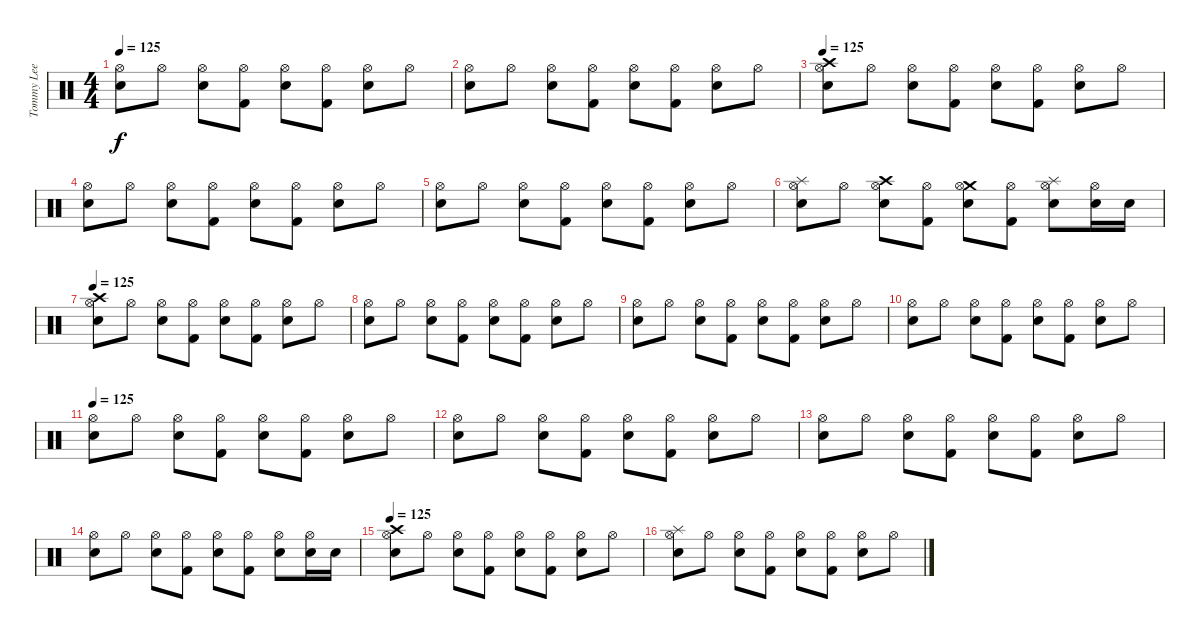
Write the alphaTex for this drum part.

\track ("Tommy Lee" "Tommy Lee") {instrument percussion}
\staff {score}
\articulation defaults
\ts (4 4)
\tempo 125
\clef neutral
\ks c
("Hi-Hat (open)" "Snare (hit) 2").8{dy f} "Hi-Hat (open)".8 ("Hi-Hat (open)" "Snare (hit) 2").8 ("Hi-Hat (open)" "Kick (hit) 2").8 ("Hi-Hat (open)" "Snare (hit) 2").8 ("Hi-Hat (open)" "Kick (hit) 2").8 ("Hi-Hat (open)" "Snare (hit) 2").8 "Hi-Hat (open)".8 |
("Hi-Hat (open)" "Snare (hit) 2").8 "Hi-Hat (open)".8 ("Hi-Hat (open)" "Snare (hit) 2").8 ("Hi-Hat (open)" "Kick (hit) 2").8 ("Hi-Hat (open)" "Snare (hit) 2").8 ("Hi-Hat (open)" "Kick (hit) 2").8 ("Hi-Hat (open)" "Snare (hit) 2").8 "Hi-Hat (open)".8 |
\tempo 125
("Hi-Hat (open)" "Snare (hit) 2" "Crash high (hit)").8 "Hi-Hat (open)".8 ("Hi-Hat (open)" "Snare (hit) 2").8 ("Hi-Hat (open)" "Kick (hit) 2").8 ("Hi-Hat (open)" "Snare (hit) 2").8 ("Hi-Hat (open)" "Kick (hit) 2").8 ("Hi-Hat (open)" "Snare (hit) 2").8 "Hi-Hat (open)".8 |
("Hi-Hat (open)" "Snare (hit) 2").8 "Hi-Hat (open)".8 ("Hi-Hat (open)" "Snare (hit) 2").8 ("Hi-Hat (open)" "Kick (hit) 2").8 ("Hi-Hat (open)" "Snare (hit) 2").8 ("Hi-Hat (open)" "Kick (hit) 2").8 ("Hi-Hat (open)" "Snare (hit) 2").8 "Hi-Hat (open)".8 |
("Hi-Hat (open)" "Snare (hit) 2").8 "Hi-Hat (open)".8 ("Hi-Hat (open)" "Snare (hit) 2").8 ("Hi-Hat (open)" "Kick (hit) 2").8 ("Hi-Hat (open)" "Snare (hit) 2").8 ("Hi-Hat (open)" "Kick (hit) 2").8 ("Hi-Hat (open)" "Snare (hit) 2").8 "Hi-Hat (open)".8 |
("Splash (hit)" "Hi-Hat (open)" "Snare (hit) 2").8 "Hi-Hat (open)".8 ("Crash high (hit)" "Hi-Hat (open)" "Snare (hit) 2").8 ("Hi-Hat (open)" "Kick (hit) 2").8 ("Crash medium (hit)" "Hi-Hat (open)" "Snare (hit) 2").8 ("Hi-Hat (open)" "Kick (hit) 2").8 ("Splash (hit)" "Hi-Hat (open)" "Snare (hit) 2").8 ("Hi-Hat (open)" "Snare (hit) 2").16 "Snare (hit) 2".16 |
\tempo 125
("Crash high (hit)" "Hi-Hat (open)" "Snare (hit) 2").8 "Hi-Hat (open)".8 ("Hi-Hat (open)" "Snare (hit) 2").8 ("Hi-Hat (open)" "Kick (hit) 2").8 ("Hi-Hat (open)" "Snare (hit) 2").8 ("Hi-Hat (open)" "Kick (hit) 2").8 ("Hi-Hat (open)" "Snare (hit) 2").8 "Hi-Hat (open)".8 |
("Hi-Hat (open)" "Snare (hit) 2").8 "Hi-Hat (open)".8 ("Hi-Hat (open)" "Snare (hit) 2").8 ("Hi-Hat (open)" "Kick (hit) 2").8 ("Hi-Hat (open)" "Snare (hit) 2").8 ("Hi-Hat (open)" "Kick (hit) 2").8 ("Hi-Hat (open)" "Snare (hit) 2").8 "Hi-Hat (open)".8 |
("Hi-Hat (open)" "Snare (hit) 2").8 "Hi-Hat (open)".8 ("Hi-Hat (open)" "Snare (hit) 2").8 ("Hi-Hat (open)" "Kick (hit) 2").8 ("Hi-Hat (open)" "Snare (hit) 2").8 ("Hi-Hat (open)" "Kick (hit) 2").8 ("Hi-Hat (open)" "Snare (hit) 2").8 "Hi-Hat (open)".8 |
("Hi-Hat (open)" "Snare (hit) 2").8 "Hi-Hat (open)".8 ("Hi-Hat (open)" "Snare (hit) 2").8 ("Hi-Hat (open)" "Kick (hit) 2").8 ("Hi-Hat (open)" "Snare (hit) 2").8 ("Hi-Hat (open)" "Kick (hit) 2").8 ("Hi-Hat (open)" "Snare (hit) 2").8 "Hi-Hat (open)".8 |
\tempo 125
("Hi-Hat (open)" "Snare (hit) 2").8 "Hi-Hat (open)".8 ("Hi-Hat (open)" "Snare (hit) 2").8 ("Hi-Hat (open)" "Kick (hit) 2").8 ("Hi-Hat (open)" "Snare (hit) 2").8 ("Hi-Hat (open)" "Kick (hit) 2").8 ("Hi-Hat (open)" "Snare (hit) 2").8 "Hi-Hat (open)".8 |
("Hi-Hat (open)" "Snare (hit) 2").8 "Hi-Hat (open)".8 ("Hi-Hat (open)" "Snare (hit) 2").8 ("Hi-Hat (open)" "Kick (hit) 2").8 ("Hi-Hat (open)" "Snare (hit) 2").8 ("Hi-Hat (open)" "Kick (hit) 2").8 ("Hi-Hat (open)" "Snare (hit) 2").8 "Hi-Hat (open)".8 |
("Hi-Hat (open)" "Snare (hit) 2").8 "Hi-Hat (open)".8 ("Hi-Hat (open)" "Snare (hit) 2").8 ("Hi-Hat (open)" "Kick (hit) 2").8 ("Hi-Hat (open)" "Snare (hit) 2").8 ("Hi-Hat (open)" "Kick (hit) 2").8 ("Hi-Hat (open)" "Snare (hit) 2").8 "Hi-Hat (open)".8 |
("Hi-Hat (open)" "Snare (hit) 2").8 "Hi-Hat (open)".8 ("Hi-Hat (open)" "Snare (hit) 2").8 ("Hi-Hat (open)" "Kick (hit) 2").8 ("Hi-Hat (open)" "Snare (hit) 2").8 ("Hi-Hat (open)" "Kick (hit) 2").8 ("Hi-Hat (open)" "Snare (hit) 2").8 ("Hi-Hat (open)" "Snare (hit) 2").16 "Snare (hit) 2".16 |
\tempo 125
("Crash high (hit)" "Hi-Hat (open)" "Snare (hit) 2").8 "Hi-Hat (open)".8 ("Hi-Hat (open)" "Snare (hit) 2").8 ("Hi-Hat (open)" "Kick (hit) 2").8 ("Hi-Hat (open)" "Snare (hit) 2").8 ("Hi-Hat (open)" "Kick (hit) 2").8 ("Hi-Hat (open)" "Snare (hit) 2").8 "Hi-Hat (open)".8 |
("Splash (hit)" "Hi-Hat (open)" "Snare (hit) 2").8 "Hi-Hat (open)".8 ("Hi-Hat (open)" "Snare (hit) 2").8 ("Hi-Hat (open)" "Kick (hit) 2").8 ("Hi-Hat (open)" "Snare (hit) 2").8 ("Hi-Hat (open)" "Kick (hit) 2").8 ("Hi-Hat (open)" "Snare (hit) 2").8 "Hi-Hat (open)".8
